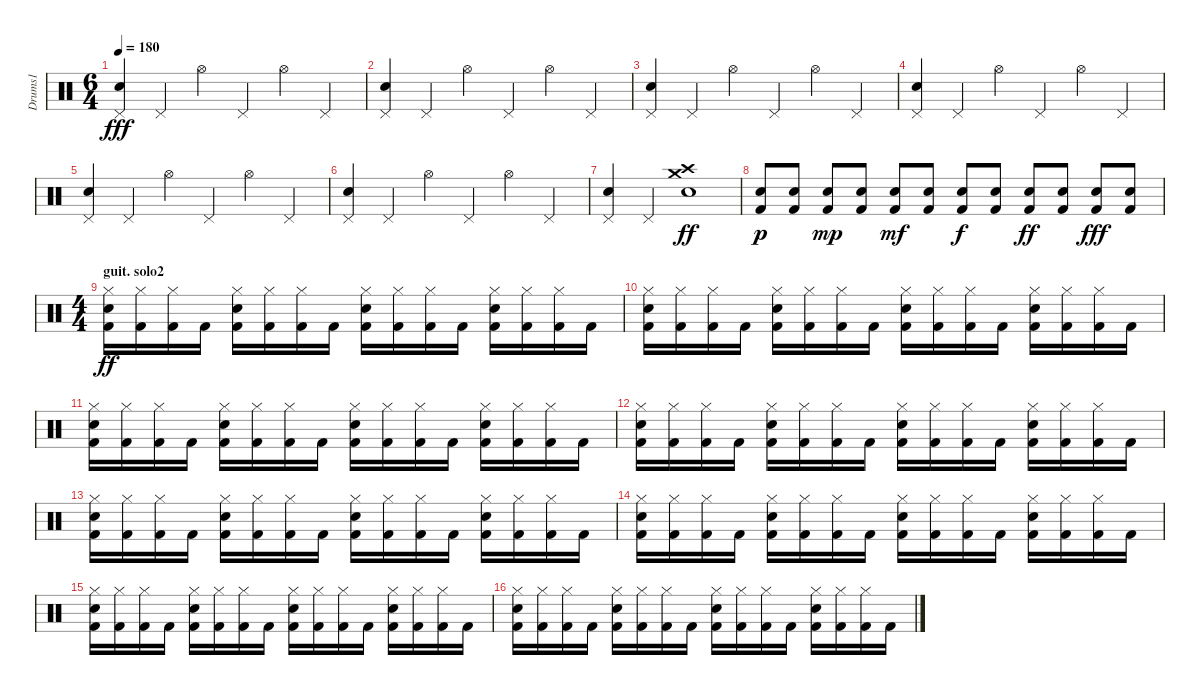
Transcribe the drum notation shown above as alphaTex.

\track ("Drums1" "Drums1") {instrument percussion}
\staff {score}
\articulation defaults
\ts (6 4)
\tempo 180
\clef neutral
\ks c
("Electric Snare (hit)" "Pedal Hi-Hat (hit)").4{dy fff} "Pedal Hi-Hat (hit)".4 "Hi-Hat (open)".4 "Pedal Hi-Hat (hit)".4 "Hi-Hat (open)".4 "Pedal Hi-Hat (hit)".4 |
("Electric Snare (hit)" "Pedal Hi-Hat (hit)").4 "Pedal Hi-Hat (hit)".4 "Hi-Hat (open)".4 "Pedal Hi-Hat (hit)".4 "Hi-Hat (open)".4 "Pedal Hi-Hat (hit)".4 |
("Electric Snare (hit)" "Pedal Hi-Hat (hit)").4 "Pedal Hi-Hat (hit)".4 "Hi-Hat (open)".4 "Pedal Hi-Hat (hit)".4 "Hi-Hat (open)".4 "Pedal Hi-Hat (hit)".4 |
("Electric Snare (hit)" "Pedal Hi-Hat (hit)").4 "Pedal Hi-Hat (hit)".4 "Hi-Hat (open)".4 "Pedal Hi-Hat (hit)".4 "Hi-Hat (open)".4 "Pedal Hi-Hat (hit)".4 |
("Electric Snare (hit)" "Pedal Hi-Hat (hit)").4 "Pedal Hi-Hat (hit)".4 "Hi-Hat (open)".4 "Pedal Hi-Hat (hit)".4 "Hi-Hat (open)".4 "Pedal Hi-Hat (hit)".4 |
("Electric Snare (hit)" "Pedal Hi-Hat (hit)").4 "Pedal Hi-Hat (hit)".4 "Hi-Hat (open)".4 "Pedal Hi-Hat (hit)".4 "Hi-Hat (open)".4 "Pedal Hi-Hat (hit)".4 |
("Electric Snare (hit)" "Pedal Hi-Hat (hit)").4 "Pedal Hi-Hat (hit)".4 ("Crash medium (hit)" "Crash high (hit)" "Electric Snare (hit)").1{dy ff} |
("Electric Snare (hit)" "Kick (hit) 2").8{dy p volume 13} ("Electric Snare (hit)" "Kick (hit) 2").8 ("Kick (hit) 2" "Electric Snare (hit)").8{dy mp} ("Electric Snare (hit)" "Kick (hit) 2").8 ("Kick (hit) 2" "Electric Snare (hit)").8{dy mf} ("Kick (hit) 2" "Electric Snare (hit)").8 ("Electric Snare (hit)" "Kick (hit) 2").8{dy f} ("Kick (hit) 2" "Electric Snare (hit)").8 ("Kick (hit) 2" "Electric Snare (hit)").8{dy ff} ("Kick (hit) 2" "Electric Snare (hit)").8 ("Kick (hit) 2" "Electric Snare (hit)").8{dy fff} ("Kick (hit) 2" "Electric Snare (hit)").8 |
\ts (4 4)
\section ("" "guit. solo2")
("Hi-Hat (closed)" "Kick (hit) 2" "Electric Snare (hit)").16{dy ff} ("Hi-Hat (closed)" "Kick (hit) 2").16 ("Hi-Hat (closed)" "Kick (hit) 2").16 "Kick (hit) 2".16 ("Hi-Hat (closed)" "Kick (hit) 2" "Electric Snare (hit)").16 ("Hi-Hat (closed)" "Kick (hit) 2").16 ("Hi-Hat (closed)" "Kick (hit) 2").16 "Kick (hit) 2".16 ("Hi-Hat (closed)" "Kick (hit) 2" "Electric Snare (hit)").16 ("Hi-Hat (closed)" "Kick (hit) 2").16 ("Hi-Hat (closed)" "Kick (hit) 2").16 "Kick (hit) 2".16 ("Hi-Hat (closed)" "Kick (hit) 2" "Electric Snare (hit)").16 ("Hi-Hat (closed)" "Kick (hit) 2").16 ("Hi-Hat (closed)" "Kick (hit) 2").16 "Kick (hit) 2".16 |
("Hi-Hat (closed)" "Kick (hit) 2" "Electric Snare (hit)").16 ("Hi-Hat (closed)" "Kick (hit) 2").16 ("Hi-Hat (closed)" "Kick (hit) 2").16 "Kick (hit) 2".16 ("Hi-Hat (closed)" "Kick (hit) 2" "Electric Snare (hit)").16 ("Hi-Hat (closed)" "Kick (hit) 2").16 ("Hi-Hat (closed)" "Kick (hit) 2").16 "Kick (hit) 2".16 ("Hi-Hat (closed)" "Kick (hit) 2" "Electric Snare (hit)").16 ("Hi-Hat (closed)" "Kick (hit) 2").16 ("Hi-Hat (closed)" "Kick (hit) 2").16 "Kick (hit) 2".16 ("Hi-Hat (closed)" "Kick (hit) 2" "Electric Snare (hit)").16 ("Hi-Hat (closed)" "Kick (hit) 2").16 ("Hi-Hat (closed)" "Kick (hit) 2").16 "Kick (hit) 2".16 |
("Hi-Hat (closed)" "Kick (hit) 2" "Electric Snare (hit)").16 ("Hi-Hat (closed)" "Kick (hit) 2").16 ("Hi-Hat (closed)" "Kick (hit) 2").16 "Kick (hit) 2".16 ("Hi-Hat (closed)" "Kick (hit) 2" "Electric Snare (hit)").16 ("Hi-Hat (closed)" "Kick (hit) 2").16 ("Hi-Hat (closed)" "Kick (hit) 2").16 "Kick (hit) 2".16 ("Hi-Hat (closed)" "Kick (hit) 2" "Electric Snare (hit)").16 ("Hi-Hat (closed)" "Kick (hit) 2").16 ("Hi-Hat (closed)" "Kick (hit) 2").16 "Kick (hit) 2".16 ("Hi-Hat (closed)" "Kick (hit) 2" "Electric Snare (hit)").16 ("Hi-Hat (closed)" "Kick (hit) 2").16 ("Hi-Hat (closed)" "Kick (hit) 2").16 "Kick (hit) 2".16 |
("Hi-Hat (closed)" "Kick (hit) 2" "Electric Snare (hit)").16 ("Hi-Hat (closed)" "Kick (hit) 2").16 ("Hi-Hat (closed)" "Kick (hit) 2").16 "Kick (hit) 2".16 ("Hi-Hat (closed)" "Kick (hit) 2" "Electric Snare (hit)").16 ("Hi-Hat (closed)" "Kick (hit) 2").16 ("Hi-Hat (closed)" "Kick (hit) 2").16 "Kick (hit) 2".16 ("Hi-Hat (closed)" "Kick (hit) 2" "Electric Snare (hit)").16 ("Hi-Hat (closed)" "Kick (hit) 2").16 ("Hi-Hat (closed)" "Kick (hit) 2").16 "Kick (hit) 2".16 ("Hi-Hat (closed)" "Kick (hit) 2" "Electric Snare (hit)").16 ("Hi-Hat (closed)" "Kick (hit) 2").16 ("Hi-Hat (closed)" "Kick (hit) 2").16 "Kick (hit) 2".16 |
("Hi-Hat (closed)" "Kick (hit) 2" "Electric Snare (hit)").16 ("Hi-Hat (closed)" "Kick (hit) 2").16 ("Hi-Hat (closed)" "Kick (hit) 2").16 "Kick (hit) 2".16 ("Hi-Hat (closed)" "Kick (hit) 2" "Electric Snare (hit)").16 ("Hi-Hat (closed)" "Kick (hit) 2").16 ("Hi-Hat (closed)" "Kick (hit) 2").16 "Kick (hit) 2".16 ("Hi-Hat (closed)" "Kick (hit) 2" "Electric Snare (hit)").16 ("Hi-Hat (closed)" "Kick (hit) 2").16 ("Hi-Hat (closed)" "Kick (hit) 2").16 "Kick (hit) 2".16 ("Hi-Hat (closed)" "Kick (hit) 2" "Electric Snare (hit)").16 ("Hi-Hat (closed)" "Kick (hit) 2").16 ("Hi-Hat (closed)" "Kick (hit) 2").16 "Kick (hit) 2".16 |
("Hi-Hat (closed)" "Kick (hit) 2" "Electric Snare (hit)").16 ("Hi-Hat (closed)" "Kick (hit) 2").16 ("Hi-Hat (closed)" "Kick (hit) 2").16 "Kick (hit) 2".16 ("Hi-Hat (closed)" "Kick (hit) 2" "Electric Snare (hit)").16 ("Hi-Hat (closed)" "Kick (hit) 2").16 ("Hi-Hat (closed)" "Kick (hit) 2").16 "Kick (hit) 2".16 ("Hi-Hat (closed)" "Kick (hit) 2" "Electric Snare (hit)").16 ("Hi-Hat (closed)" "Kick (hit) 2").16 ("Hi-Hat (closed)" "Kick (hit) 2").16 "Kick (hit) 2".16 ("Hi-Hat (closed)" "Kick (hit) 2" "Electric Snare (hit)").16 ("Hi-Hat (closed)" "Kick (hit) 2").16 ("Hi-Hat (closed)" "Kick (hit) 2").16 "Kick (hit) 2".16 |
("Hi-Hat (closed)" "Kick (hit) 2" "Electric Snare (hit)").16 ("Hi-Hat (closed)" "Kick (hit) 2").16 ("Hi-Hat (closed)" "Kick (hit) 2").16 "Kick (hit) 2".16 ("Hi-Hat (closed)" "Kick (hit) 2" "Electric Snare (hit)").16 ("Hi-Hat (closed)" "Kick (hit) 2").16 ("Hi-Hat (closed)" "Kick (hit) 2").16 "Kick (hit) 2".16 ("Hi-Hat (closed)" "Kick (hit) 2" "Electric Snare (hit)").16 ("Hi-Hat (closed)" "Kick (hit) 2").16 ("Hi-Hat (closed)" "Kick (hit) 2").16 "Kick (hit) 2".16 ("Hi-Hat (closed)" "Kick (hit) 2" "Electric Snare (hit)").16 ("Hi-Hat (closed)" "Kick (hit) 2").16 ("Hi-Hat (closed)" "Kick (hit) 2").16 "Kick (hit) 2".16 |
("Hi-Hat (closed)" "Kick (hit) 2" "Electric Snare (hit)").16 ("Hi-Hat (closed)" "Kick (hit) 2").16 ("Hi-Hat (closed)" "Kick (hit) 2").16 "Kick (hit) 2".16 ("Hi-Hat (closed)" "Kick (hit) 2" "Electric Snare (hit)").16 ("Hi-Hat (closed)" "Kick (hit) 2").16 ("Hi-Hat (closed)" "Kick (hit) 2").16 "Kick (hit) 2".16 ("Hi-Hat (closed)" "Kick (hit) 2" "Electric Snare (hit)").16 ("Hi-Hat (closed)" "Kick (hit) 2").16 ("Hi-Hat (closed)" "Kick (hit) 2").16 "Kick (hit) 2".16 ("Hi-Hat (closed)" "Kick (hit) 2" "Electric Snare (hit)").16 ("Hi-Hat (closed)" "Kick (hit) 2").16 ("Hi-Hat (closed)" "Kick (hit) 2").16 "Kick (hit) 2".16
